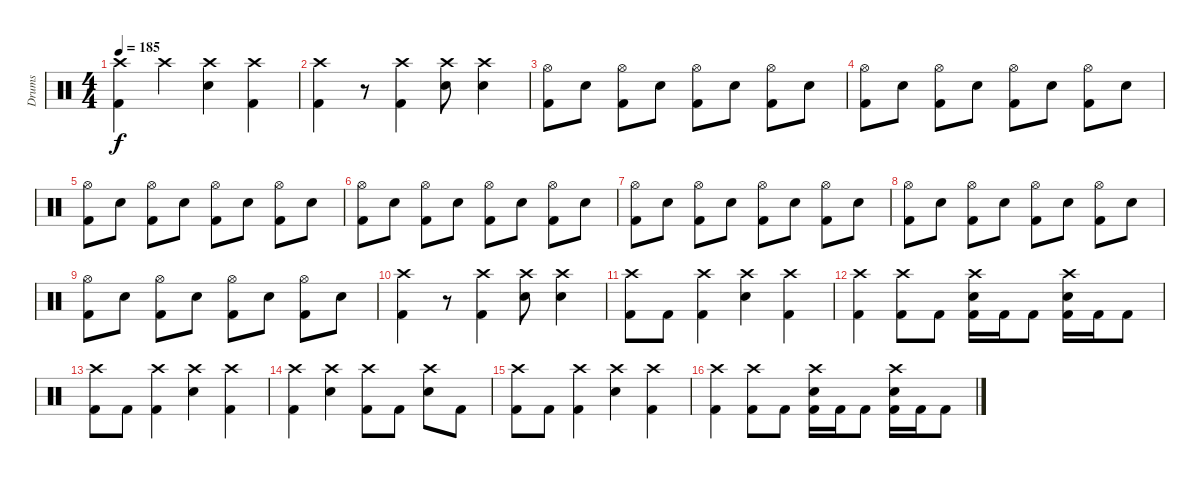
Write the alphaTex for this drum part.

\track ("Drums" "Drums") {instrument percussion}
\staff {score}
\articulation defaults
\ts (4 4)
\tempo 185
\clef neutral
\ks c
("Crash high (hit)" "Kick (hit) 2").4{dy f} "Crash high (hit)".4 ("Crash high (hit)" "Snare (hit) 2").4 ("Crash high (hit)" "Kick (hit) 2").4 |
("Crash high (hit)" "Kick (hit) 2").4 r.8 ("Crash high (hit)" "Kick (hit) 2").4 ("Crash high (hit)" "Snare (hit) 2").8 ("Crash high (hit)" "Snare (hit) 2").4 |
("Hi-Hat (open)" "Kick (hit) 2").8 "Snare (hit) 2".8 ("Hi-Hat (open)" "Kick (hit) 2").8 "Snare (hit) 2".8 ("Hi-Hat (open)" "Kick (hit) 2").8 "Snare (hit) 2".8 ("Hi-Hat (open)" "Kick (hit) 2").8 "Snare (hit) 2".8 |
("Hi-Hat (open)" "Kick (hit) 2").8 "Snare (hit) 2".8 ("Hi-Hat (open)" "Kick (hit) 2").8 "Snare (hit) 2".8 ("Hi-Hat (open)" "Kick (hit) 2").8 "Snare (hit) 2".8 ("Hi-Hat (open)" "Kick (hit) 2").8 "Snare (hit) 2".8 |
("Hi-Hat (open)" "Kick (hit) 2").8 "Snare (hit) 2".8 ("Hi-Hat (open)" "Kick (hit) 2").8 "Snare (hit) 2".8 ("Hi-Hat (open)" "Kick (hit) 2").8 "Snare (hit) 2".8 ("Hi-Hat (open)" "Kick (hit) 2").8 "Snare (hit) 2".8 |
("Hi-Hat (open)" "Kick (hit) 2").8 "Snare (hit) 2".8 ("Hi-Hat (open)" "Kick (hit) 2").8 "Snare (hit) 2".8 ("Hi-Hat (open)" "Kick (hit) 2").8 "Snare (hit) 2".8 ("Hi-Hat (open)" "Kick (hit) 2").8 "Snare (hit) 2".8 |
("Hi-Hat (open)" "Kick (hit) 2").8 "Snare (hit) 2".8 ("Hi-Hat (open)" "Kick (hit) 2").8 "Snare (hit) 2".8 ("Hi-Hat (open)" "Kick (hit) 2").8 "Snare (hit) 2".8 ("Hi-Hat (open)" "Kick (hit) 2").8 "Snare (hit) 2".8 |
("Hi-Hat (open)" "Kick (hit) 2").8 "Snare (hit) 2".8 ("Hi-Hat (open)" "Kick (hit) 2").8 "Snare (hit) 2".8 ("Hi-Hat (open)" "Kick (hit) 2").8 "Snare (hit) 2".8 ("Hi-Hat (open)" "Kick (hit) 2").8 "Snare (hit) 2".8 |
("Hi-Hat (open)" "Kick (hit) 2").8 "Snare (hit) 2".8 ("Hi-Hat (open)" "Kick (hit) 2").8 "Snare (hit) 2".8 ("Hi-Hat (open)" "Kick (hit) 2").8 "Snare (hit) 2".8 ("Hi-Hat (open)" "Kick (hit) 2").8 "Snare (hit) 2".8 |
("Crash high (hit)" "Kick (hit) 2").4 r.8 ("Crash high (hit)" "Kick (hit) 2").4 ("Crash high (hit)" "Snare (hit) 2").8 ("Crash high (hit)" "Snare (hit) 2").4 |
("Crash high (hit)" "Kick (hit) 2").8 "Kick (hit) 2".8 ("Crash high (hit)" "Kick (hit) 2").4 ("Crash high (hit)" "Snare (hit) 2").4 ("Crash high (hit)" "Kick (hit) 2").4 |
("Crash high (hit)" "Kick (hit) 2").4 ("Crash high (hit)" "Kick (hit) 2").8 "Kick (hit) 2".8 ("Crash high (hit)" "Snare (hit) 2" "Kick (hit) 2").16 "Kick (hit) 2".16 "Kick (hit) 2".8 ("Crash high (hit)" "Snare (hit) 2" "Kick (hit) 2").16 "Kick (hit) 2".16 "Kick (hit) 2".8 |
("Crash high (hit)" "Kick (hit) 2").8 "Kick (hit) 2".8 ("Crash high (hit)" "Kick (hit) 2").4 ("Crash high (hit)" "Snare (hit) 2").4 ("Crash high (hit)" "Kick (hit) 2").4 |
("Crash high (hit)" "Kick (hit) 2").4 ("Crash high (hit)" "Snare (hit) 2").4 ("Crash high (hit)" "Kick (hit) 2").8 "Kick (hit) 2".8 ("Crash high (hit)" "Snare (hit) 2").8 "Kick (hit) 2".8 |
("Crash high (hit)" "Kick (hit) 2").8 "Kick (hit) 2".8 ("Crash high (hit)" "Kick (hit) 2").4 ("Crash high (hit)" "Snare (hit) 2").4 ("Crash high (hit)" "Kick (hit) 2").4 |
("Crash high (hit)" "Kick (hit) 2").4 ("Crash high (hit)" "Kick (hit) 2").8 "Kick (hit) 2".8 ("Crash high (hit)" "Snare (hit) 2" "Kick (hit) 2").16 "Kick (hit) 2".16 "Kick (hit) 2".8 ("Crash high (hit)" "Snare (hit) 2" "Kick (hit) 2").16 "Kick (hit) 2".16 "Kick (hit) 2".8
